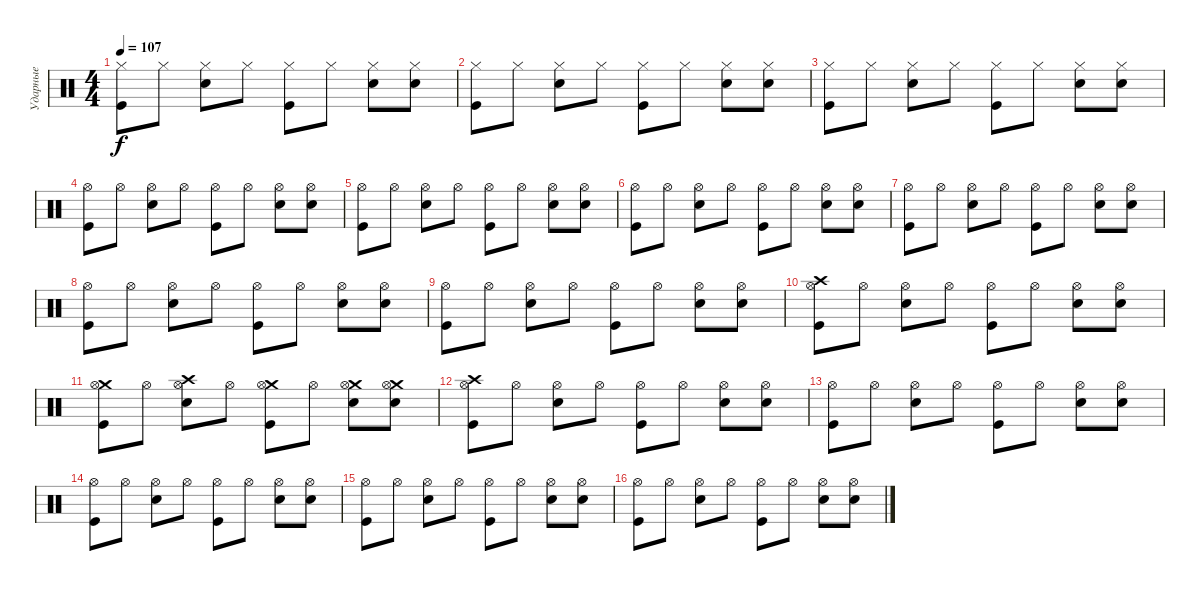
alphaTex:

\track ("Ударные" "Ударные") {instrument percussion}
\staff {score}
\articulation defaults
\ts (4 4)
\tempo 107
\clef neutral
\ks c
("Hi-Hat (closed)" "Kick (hit)").8{dy f} "Hi-Hat (closed)".8 ("Hi-Hat (closed)" "Electric Snare (hit)").8 "Hi-Hat (closed)".8 ("Hi-Hat (closed)" "Kick (hit)").8 "Hi-Hat (closed)".8 ("Hi-Hat (closed)" "Electric Snare (hit)").8 ("Hi-Hat (closed)" "Electric Snare (hit)").8 |
("Hi-Hat (closed)" "Kick (hit)").8 "Hi-Hat (closed)".8 ("Hi-Hat (closed)" "Electric Snare (hit)").8 "Hi-Hat (closed)".8 ("Hi-Hat (closed)" "Kick (hit)").8 "Hi-Hat (closed)".8 ("Hi-Hat (closed)" "Electric Snare (hit)").8 ("Hi-Hat (closed)" "Electric Snare (hit)").8 |
("Hi-Hat (closed)" "Kick (hit)").8 "Hi-Hat (closed)".8 ("Hi-Hat (closed)" "Electric Snare (hit)").8 "Hi-Hat (closed)".8 ("Hi-Hat (closed)" "Kick (hit)").8 "Hi-Hat (closed)".8 ("Hi-Hat (closed)" "Electric Snare (hit)").8 ("Hi-Hat (closed)" "Electric Snare (hit)").8 |
("Hi-Hat (open)" "Kick (hit)").8 "Hi-Hat (open)".8 ("Hi-Hat (open)" "Electric Snare (hit)").8 "Hi-Hat (open)".8 ("Hi-Hat (open)" "Kick (hit)").8 "Hi-Hat (open)".8 ("Hi-Hat (open)" "Electric Snare (hit)").8 ("Hi-Hat (open)" "Electric Snare (hit)").8 |
("Hi-Hat (open)" "Kick (hit)").8 "Hi-Hat (open)".8 ("Hi-Hat (open)" "Electric Snare (hit)").8 "Hi-Hat (open)".8 ("Hi-Hat (open)" "Kick (hit)").8 "Hi-Hat (open)".8 ("Hi-Hat (open)" "Electric Snare (hit)").8 ("Hi-Hat (open)" "Electric Snare (hit)").8 |
("Hi-Hat (open)" "Kick (hit)").8 "Hi-Hat (open)".8 ("Hi-Hat (open)" "Electric Snare (hit)").8 "Hi-Hat (open)".8 ("Hi-Hat (open)" "Kick (hit)").8 "Hi-Hat (open)".8 ("Hi-Hat (open)" "Electric Snare (hit)").8 ("Hi-Hat (open)" "Electric Snare (hit)").8 |
("Hi-Hat (open)" "Kick (hit)").8 "Hi-Hat (open)".8 ("Hi-Hat (open)" "Electric Snare (hit)").8 "Hi-Hat (open)".8 ("Hi-Hat (open)" "Kick (hit)").8 "Hi-Hat (open)".8 ("Hi-Hat (open)" "Electric Snare (hit)").8 ("Hi-Hat (open)" "Electric Snare (hit)").8 |
("Hi-Hat (open)" "Kick (hit)").8 "Hi-Hat (open)".8 ("Hi-Hat (open)" "Electric Snare (hit)").8 "Hi-Hat (open)".8 ("Hi-Hat (open)" "Kick (hit)").8 "Hi-Hat (open)".8 ("Hi-Hat (open)" "Electric Snare (hit)").8 ("Hi-Hat (open)" "Electric Snare (hit)").8 |
("Hi-Hat (open)" "Kick (hit)").8 "Hi-Hat (open)".8 ("Hi-Hat (open)" "Electric Snare (hit)").8 "Hi-Hat (open)".8 ("Hi-Hat (open)" "Kick (hit)").8 "Hi-Hat (open)".8 ("Hi-Hat (open)" "Electric Snare (hit)").8 ("Hi-Hat (open)" "Electric Snare (hit)").8 |
("Crash high (hit)" "Hi-Hat (open)" "Kick (hit)").8 "Hi-Hat (open)".8 ("Hi-Hat (open)" "Electric Snare (hit)").8 "Hi-Hat (open)".8 ("Hi-Hat (open)" "Kick (hit)").8 "Hi-Hat (open)".8 ("Hi-Hat (open)" "Electric Snare (hit)").8 ("Hi-Hat (open)" "Electric Snare (hit)").8 |
("Crash medium (hit)" "Hi-Hat (open)" "Kick (hit)").8 "Hi-Hat (open)".8 ("Crash high (hit)" "Hi-Hat (open)" "Electric Snare (hit)").8 "Hi-Hat (open)".8 ("Crash medium (hit)" "Hi-Hat (open)" "Kick (hit)").8 "Hi-Hat (open)".8 ("Crash medium (hit)" "Hi-Hat (open)" "Electric Snare (hit)").8 ("Crash medium (hit)" "Hi-Hat (open)" "Electric Snare (hit)").8 |
("Crash high (hit)" "Hi-Hat (open)" "Kick (hit)").8 "Hi-Hat (open)".8 ("Hi-Hat (open)" "Electric Snare (hit)").8 "Hi-Hat (open)".8 ("Hi-Hat (open)" "Kick (hit)").8 "Hi-Hat (open)".8 ("Hi-Hat (open)" "Electric Snare (hit)").8 ("Hi-Hat (open)" "Electric Snare (hit)").8 |
("Hi-Hat (open)" "Kick (hit)").8 "Hi-Hat (open)".8 ("Hi-Hat (open)" "Electric Snare (hit)").8 "Hi-Hat (open)".8 ("Hi-Hat (open)" "Kick (hit)").8 "Hi-Hat (open)".8 ("Hi-Hat (open)" "Electric Snare (hit)").8 ("Hi-Hat (open)" "Electric Snare (hit)").8 |
("Hi-Hat (open)" "Kick (hit)").8 "Hi-Hat (open)".8 ("Hi-Hat (open)" "Electric Snare (hit)").8 "Hi-Hat (open)".8 ("Hi-Hat (open)" "Kick (hit)").8 "Hi-Hat (open)".8 ("Hi-Hat (open)" "Electric Snare (hit)").8 ("Hi-Hat (open)" "Electric Snare (hit)").8 |
("Hi-Hat (open)" "Kick (hit)").8 "Hi-Hat (open)".8 ("Hi-Hat (open)" "Electric Snare (hit)").8 "Hi-Hat (open)".8 ("Hi-Hat (open)" "Kick (hit)").8 "Hi-Hat (open)".8 ("Hi-Hat (open)" "Electric Snare (hit)").8 ("Hi-Hat (open)" "Electric Snare (hit)").8 |
("Hi-Hat (open)" "Kick (hit)").8 "Hi-Hat (open)".8 ("Hi-Hat (open)" "Electric Snare (hit)").8 "Hi-Hat (open)".8 ("Hi-Hat (open)" "Kick (hit)").8 "Hi-Hat (open)".8 ("Hi-Hat (open)" "Electric Snare (hit)").8 ("Hi-Hat (open)" "Electric Snare (hit)").8
